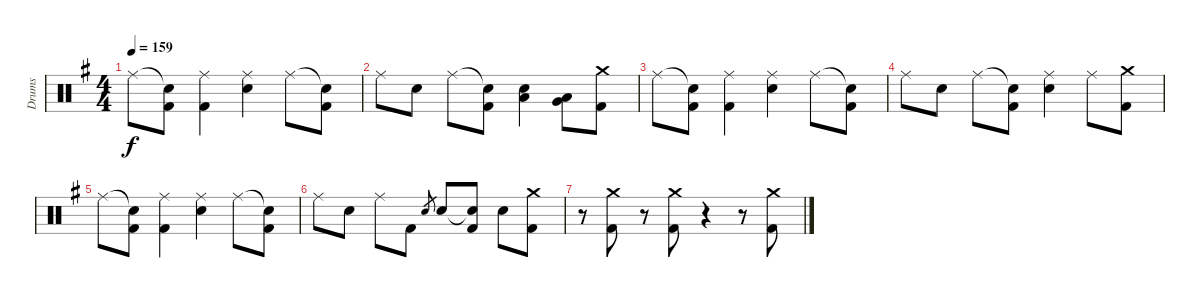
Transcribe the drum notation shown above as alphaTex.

\track ("Drums" "Drums") {instrument percussion}
\staff {score}
\articulation defaults
\ts (4 4)
\tempo 159
\clef neutral
\ks g "Ride (middle)".8{dy f}
("Snare (hit)"{t} "Kick (hit) 2").8 ("Ride (middle)" "Kick (hit) 2").4 ("Ride (middle)" "Electric Snare (hit)").4 "Ride (middle)".8 ("Snare (hit)"{t} "Kick (hit) 2").8 |
"Ride (middle)".8 "Electric Snare (hit)".8 "Ride (middle)".8 ("Snare (hit)"{t} "Kick (hit) 2").8 ("Electric Snare (hit)" "Low Tom (hit)").4 ("Very Low Tom (hit)" "Low Floor Tom (hit)").8 ("Crash medium (hit)" "Kick (hit) 2").8 |
"Ride (middle)".8 ("Snare (hit)"{t} "Kick (hit) 2").8 ("Ride (middle)" "Kick (hit) 2").4 ("Ride (middle)" "Electric Snare (hit)").4 "Ride (middle)".8 ("Snare (hit)"{t} "Kick (hit) 2").8 |
"Ride (middle)".8 "Electric Snare (hit)".8 "Ride (middle)".8 ("Snare (hit)"{t} "Kick (hit) 2").8 ("Ride (middle)" "Electric Snare (hit)").4 "Ride (middle)".8 ("Crash medium (hit)" "Kick (hit) 2").8 |
"Ride (middle)".8 ("Snare (hit)"{t} "Kick (hit) 2").8 ("Ride (middle)" "Kick (hit) 2").4 ("Ride (middle)" "Electric Snare (hit)").4 "Ride (middle)".8 ("Snare (hit)"{t} "Kick (hit) 2").8 |
"Ride (middle)".8 "Electric Snare (hit)".8 "Ride (middle)".8 "Kick (hit) 2".8 "Electric Snare (hit)".8{gr} "Electric Snare (hit)".8 ("Snare (hit)"{t} "Kick (hit) 2").8 "Electric Snare (hit)".8 ("Crash medium (hit)" "Kick (hit) 2").8 |
r.8 ("Crash medium (hit)" "Kick (hit) 2").8 r.8 ("Crash medium (hit)" "Kick (hit) 2").8 r.4 r.8 ("Crash medium (hit)" "Kick (hit) 2").8
